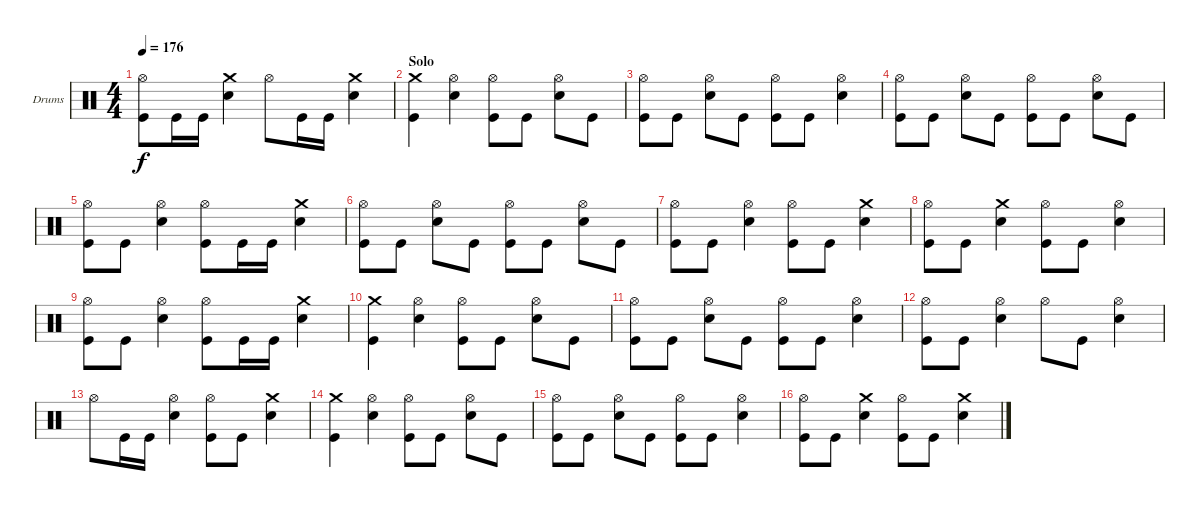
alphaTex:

\bracketExtendMode groupsimilarinstruments
\firstSystemTrackNameOrientation horizontal
\otherSystemsTrackNameOrientation horizontal
\track ("Drums" "Drums") {instrument percussion}
\staff {score}
\articulation defaults
\ts (4 4)
\tempo 176
\clef neutral
\ks c
("Hi-Hat (open)" "Kick (hit)").8{dy f} "Kick (hit)".16 "Kick (hit)".16 ("Crash medium (hit)" "Snare (hit) 2").4 "Hi-Hat (open)".8 "Kick (hit)".16 "Kick (hit)".16 ("Crash medium (hit)" "Snare (hit) 2").4 |
\section ("" "Solo")
("Crash medium (hit)" "Kick (hit)").4 ("Hi-Hat (open)" "Snare (hit) 2").4 ("Hi-Hat (open)" "Kick (hit)").8 "Kick (hit)".8 ("Hi-Hat (open)" "Snare (hit) 2").8 "Kick (hit)".8 |
("Hi-Hat (open)" "Kick (hit)").8 "Kick (hit)".8 ("Hi-Hat (open)" "Snare (hit) 2").8 "Kick (hit)".8 ("Hi-Hat (open)" "Kick (hit)").8 "Kick (hit)".8 ("Hi-Hat (open)" "Snare (hit) 2").4 |
("Hi-Hat (open)" "Kick (hit)").8 "Kick (hit)".8 ("Hi-Hat (open)" "Snare (hit) 2").8 "Kick (hit)".8 ("Hi-Hat (open)" "Kick (hit)").8 "Kick (hit)".8 ("Hi-Hat (open)" "Snare (hit) 2").8 "Kick (hit)".8 |
("Hi-Hat (open)" "Kick (hit)").8 "Kick (hit)".8 ("Snare (hit) 2" "Hi-Hat (open)").4 ("Hi-Hat (open)" "Kick (hit)").8 "Kick (hit)".16 "Kick (hit)".16 ("Crash medium (hit)" "Snare (hit) 2").4 |
("Hi-Hat (open)" "Kick (hit)").8 "Kick (hit)".8 ("Hi-Hat (open)" "Snare (hit) 2").8 "Kick (hit)".8 ("Hi-Hat (open)" "Kick (hit)").8 "Kick (hit)".8 ("Hi-Hat (open)" "Snare (hit) 2").8 "Kick (hit)".8 |
("Hi-Hat (open)" "Kick (hit)").8 "Kick (hit)".8 ("Hi-Hat (open)" "Snare (hit) 2").4 ("Hi-Hat (open)" "Kick (hit)").8 "Kick (hit)".8 ("Crash medium (hit)" "Snare (hit) 2").4 |
("Hi-Hat (open)" "Kick (hit)").8 "Kick (hit)".8 ("Snare (hit) 2" "Crash medium (hit)").4 ("Hi-Hat (open)" "Kick (hit)").8 "Kick (hit)".8 ("Hi-Hat (open)" "Snare (hit) 2").4 |
("Hi-Hat (open)" "Kick (hit)").8 "Kick (hit)".8 ("Snare (hit) 2" "Hi-Hat (open)").4 ("Hi-Hat (open)" "Kick (hit)").8 "Kick (hit)".16 "Kick (hit)".16 ("Crash medium (hit)" "Snare (hit) 2").4 |
("Kick (hit)" "Crash medium (hit)").4 ("Hi-Hat (open)" "Snare (hit) 2").4 ("Hi-Hat (open)" "Kick (hit)").8 "Kick (hit)".8 ("Hi-Hat (open)" "Snare (hit) 2").8 "Kick (hit)".8 |
("Hi-Hat (open)" "Kick (hit)").8 "Kick (hit)".8 ("Hi-Hat (open)" "Snare (hit) 2").8 "Kick (hit)".8 ("Hi-Hat (open)" "Kick (hit)").8 "Kick (hit)".8 ("Snare (hit) 2" "Hi-Hat (open)").4 |
("Hi-Hat (open)" "Kick (hit)").8 "Kick (hit)".8 ("Hi-Hat (open)" "Snare (hit) 2").4 "Hi-Hat (open)".8 "Kick (hit)".8 ("Hi-Hat (open)" "Snare (hit) 2").4 |
"Hi-Hat (open)".8 "Kick (hit)".16 "Kick (hit)".16 ("Snare (hit) 2" "Hi-Hat (open)").4 ("Hi-Hat (open)" "Kick (hit)").8 "Kick (hit)".8 ("Crash medium (hit)" "Snare (hit) 2").4 |
("Kick (hit)" "Crash medium (hit)").4 ("Hi-Hat (open)" "Snare (hit) 2").4 ("Hi-Hat (open)" "Kick (hit)").8 "Kick (hit)".8 ("Hi-Hat (open)" "Snare (hit) 2").8 "Kick (hit)".8 |
("Hi-Hat (open)" "Kick (hit)").8 "Kick (hit)".8 ("Hi-Hat (open)" "Snare (hit) 2").8 "Kick (hit)".8 ("Hi-Hat (open)" "Kick (hit)").8 "Kick (hit)".8 ("Snare (hit) 2" "Hi-Hat (open)").4 |
("Hi-Hat (open)" "Kick (hit)").8 "Kick (hit)".8 ("Snare (hit) 2" "Crash medium (hit)").4 ("Hi-Hat (open)" "Kick (hit)").8 "Kick (hit)".8 ("Snare (hit) 2" "Crash medium (hit)").4
